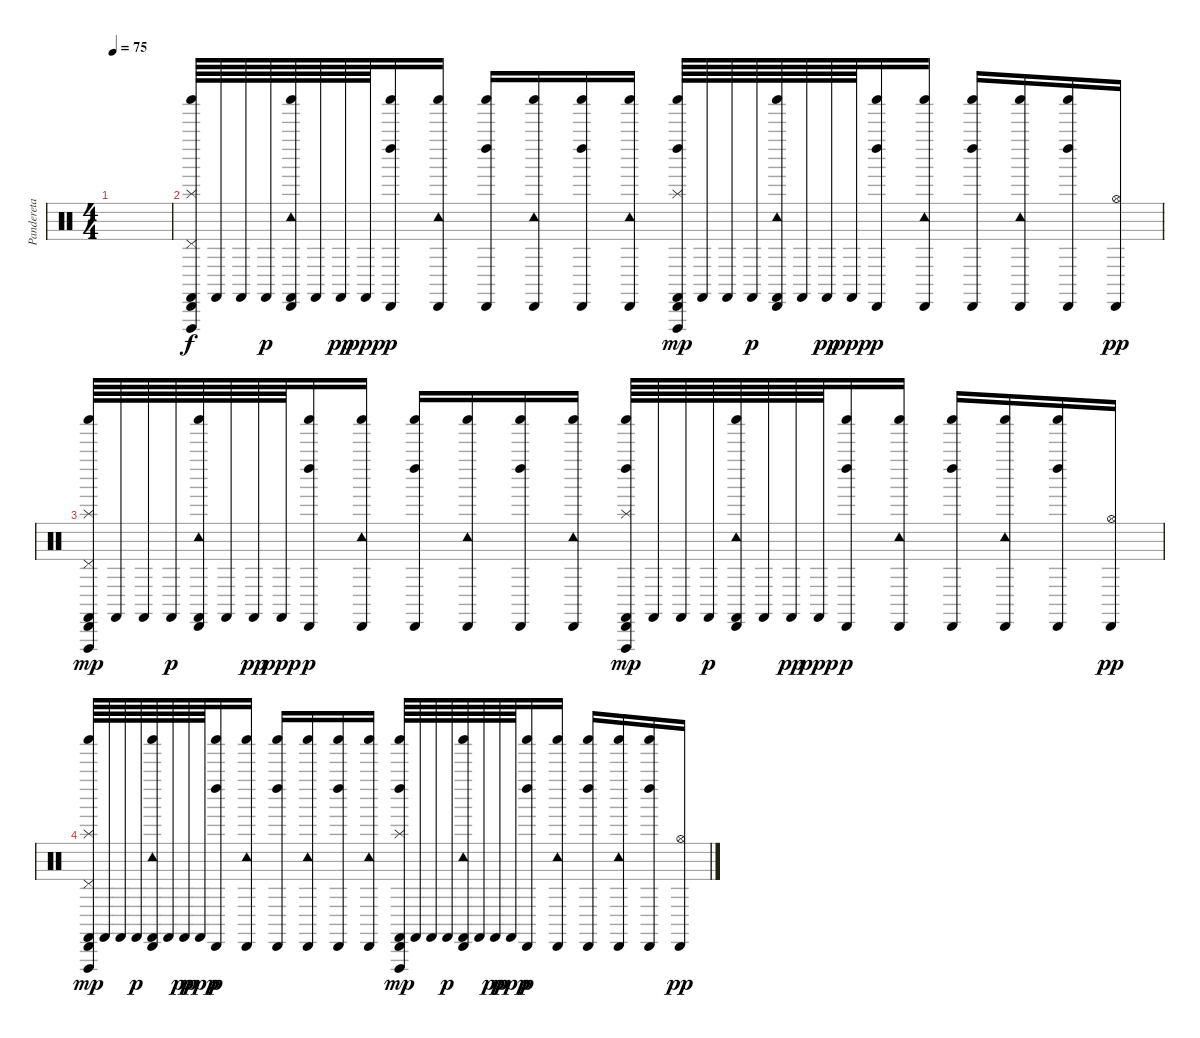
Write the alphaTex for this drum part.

\track ("Pandereta" "Pandereta") {instrument percussion}
\staff {score}
\articulation defaults
\ts (4 4)
\tempo 75
\clef neutral
\ks c
|
("Cabasa (hit)" "Shaker (hit)" "Pedal Hi-Hat (hit)" "Splash (hit)" "Vibraslap (hit)" "Castanets (hit)").64 "Castanets (hit)".64 "Castanets (hit)".64 "Castanets (hit)".64{dy p} ("Cabasa (hit)" "Tambourine (hit)" "Shaker (hit)" "Castanets (hit)").64 "Castanets (hit)".64 "Castanets (hit)".64{dy pp} "Castanets (hit)".64{dy ppp} ("Cabasa (hit)" "Left Maraca (hit)" "Shaker (hit)").16{dy p} ("Cabasa (hit)" "Tambourine (hit)" "Shaker (hit)").16 ("Cabasa (hit)" "Left Maraca (hit)" "Shaker (hit)").16 ("Cabasa (hit)" "Tambourine (hit)" "Shaker (hit)").16 ("Cabasa (hit)" "Left Maraca (hit)" "Shaker (hit)").16 ("Cabasa (hit)" "Tambourine (hit)" "Shaker (hit)").16 ("Cabasa (hit)" "Left Maraca (hit)" "Splash (hit)" "Shaker (hit)" "Vibraslap (hit)" "Castanets (hit)").64{dy mp} "Castanets (hit)".64 "Castanets (hit)".64 "Castanets (hit)".64{dy p} ("Cabasa (hit)" "Tambourine (hit)" "Shaker (hit)" "Castanets (hit)").64 "Castanets (hit)".64 "Castanets (hit)".64{dy pp} "Castanets (hit)".64{dy ppp} ("Cabasa (hit)" "Left Maraca (hit)" "Shaker (hit)").16{dy p} ("Cabasa (hit)" "Tambourine (hit)" "Shaker (hit)").16 ("Cabasa (hit)" "Left Maraca (hit)" "Shaker (hit)").16 ("Cabasa (hit)" "Tambourine (hit)" "Shaker (hit)").16 ("Cabasa (hit)" "Left Maraca (hit)" "Shaker (hit)").16 ("Cabasa (hit)" "Hi-Hat (open)").16{dy pp} |
("Cabasa (hit)" "Shaker (hit)" "Pedal Hi-Hat (hit)" "Splash (hit)" "Vibraslap (hit)" "Castanets (hit)").64{dy mp} "Castanets (hit)".64 "Castanets (hit)".64 "Castanets (hit)".64{dy p} ("Cabasa (hit)" "Tambourine (hit)" "Shaker (hit)" "Castanets (hit)").64 "Castanets (hit)".64 "Castanets (hit)".64{dy pp} "Castanets (hit)".64{dy ppp} ("Cabasa (hit)" "Left Maraca (hit)" "Shaker (hit)").16{dy p} ("Cabasa (hit)" "Tambourine (hit)" "Shaker (hit)").16 ("Cabasa (hit)" "Left Maraca (hit)" "Shaker (hit)").16 ("Cabasa (hit)" "Tambourine (hit)" "Shaker (hit)").16 ("Cabasa (hit)" "Left Maraca (hit)" "Shaker (hit)").16 ("Cabasa (hit)" "Tambourine (hit)" "Shaker (hit)").16 ("Cabasa (hit)" "Left Maraca (hit)" "Splash (hit)" "Shaker (hit)" "Vibraslap (hit)" "Castanets (hit)").64{dy mp} "Castanets (hit)".64 "Castanets (hit)".64 "Castanets (hit)".64{dy p} ("Cabasa (hit)" "Tambourine (hit)" "Shaker (hit)" "Castanets (hit)").64 "Castanets (hit)".64 "Castanets (hit)".64{dy pp} "Castanets (hit)".64{dy ppp} ("Cabasa (hit)" "Left Maraca (hit)" "Shaker (hit)").16{dy p} ("Cabasa (hit)" "Tambourine (hit)" "Shaker (hit)").16 ("Cabasa (hit)" "Left Maraca (hit)" "Shaker (hit)").16 ("Cabasa (hit)" "Tambourine (hit)" "Shaker (hit)").16 ("Cabasa (hit)" "Left Maraca (hit)" "Shaker (hit)").16 ("Cabasa (hit)" "Hi-Hat (open)").16{dy pp} |
("Cabasa (hit)" "Shaker (hit)" "Pedal Hi-Hat (hit)" "Splash (hit)" "Vibraslap (hit)" "Castanets (hit)").64{dy mp} "Castanets (hit)".64 "Castanets (hit)".64 "Castanets (hit)".64{dy p} ("Cabasa (hit)" "Tambourine (hit)" "Shaker (hit)" "Castanets (hit)").64 "Castanets (hit)".64 "Castanets (hit)".64{dy pp} "Castanets (hit)".64{dy ppp} ("Cabasa (hit)" "Left Maraca (hit)" "Shaker (hit)").16{dy p} ("Cabasa (hit)" "Tambourine (hit)" "Shaker (hit)").16 ("Cabasa (hit)" "Left Maraca (hit)" "Shaker (hit)").16 ("Cabasa (hit)" "Tambourine (hit)" "Shaker (hit)").16 ("Cabasa (hit)" "Left Maraca (hit)" "Shaker (hit)").16 ("Cabasa (hit)" "Tambourine (hit)" "Shaker (hit)").16 ("Cabasa (hit)" "Left Maraca (hit)" "Splash (hit)" "Shaker (hit)" "Vibraslap (hit)" "Castanets (hit)").64{dy mp} "Castanets (hit)".64 "Castanets (hit)".64 "Castanets (hit)".64{dy p} ("Cabasa (hit)" "Tambourine (hit)" "Shaker (hit)" "Castanets (hit)").64 "Castanets (hit)".64 "Castanets (hit)".64{dy pp} "Castanets (hit)".64{dy ppp} ("Cabasa (hit)" "Left Maraca (hit)" "Shaker (hit)").16{dy p} ("Cabasa (hit)" "Tambourine (hit)" "Shaker (hit)").16 ("Cabasa (hit)" "Left Maraca (hit)" "Shaker (hit)").16 ("Cabasa (hit)" "Tambourine (hit)" "Shaker (hit)").16 ("Cabasa (hit)" "Left Maraca (hit)" "Shaker (hit)").16 ("Cabasa (hit)" "Hi-Hat (open)").16{dy pp}
